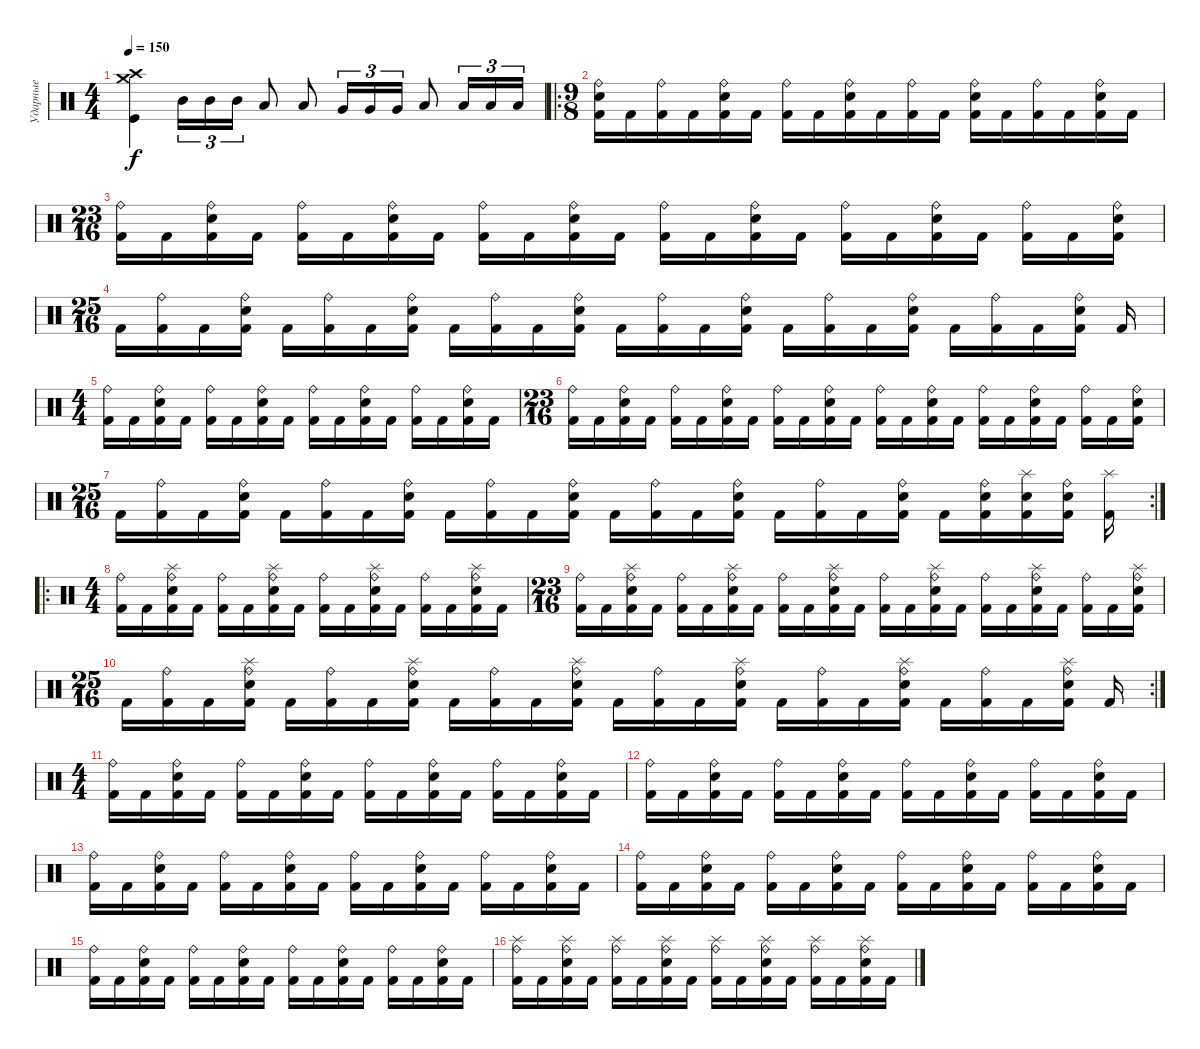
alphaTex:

\track ("Ударные" "Ударные") {instrument percussion}
\staff {score}
\articulation defaults
\ts (4 4)
\tempo 150
\clef neutral
\ks c
("Kick (hit)" "Crash medium (hit)" "Crash high (hit)").4{dy f} "Mid Tom (hit)".16{tu (3 2)} "Mid Tom (hit)".16{tu (3 2)} "Mid Tom (hit)".16{tu (3 2)} "Low Tom (hit)".8 "Low Tom (hit)".8 "Very Low Tom (hit)".16{tu (3 2)} "Very Low Tom (hit)".16{tu (3 2)} "Very Low Tom (hit)".16{tu (3 2)} "Low Floor Tom (hit)".8 "Low Floor Tom (hit)".16{tu (3 2)} "Low Floor Tom (hit)".16{tu (3 2)} "Low Floor Tom (hit)".16{tu (3 2)} |
\ro
\ts (9 8)
("Kick (hit) 2" "Snare (hit) 2" "Ride (bell)").16 "Kick (hit) 2".16 ("Kick (hit) 2" "Ride (bell)").16 "Kick (hit) 2".16 ("Kick (hit) 2" "Snare (hit) 2" "Ride (bell)").16 "Kick (hit) 2".16 ("Kick (hit) 2" "Ride (bell)").16 "Kick (hit) 2".16 ("Kick (hit) 2" "Snare (hit) 2" "Ride (bell)").16 "Kick (hit) 2".16 ("Kick (hit) 2" "Ride (bell)").16 "Kick (hit) 2".16 ("Kick (hit) 2" "Snare (hit) 2" "Ride (bell)").16 "Kick (hit) 2".16 ("Kick (hit) 2" "Ride (bell)").16 "Kick (hit) 2".16 ("Kick (hit) 2" "Snare (hit) 2" "Ride (bell)").16 "Kick (hit) 2".16 |
\ts (23 16)
("Kick (hit) 2" "Ride (bell)").16 "Kick (hit) 2".16 ("Kick (hit) 2" "Snare (hit) 2" "Ride (bell)").16 "Kick (hit) 2".16 ("Kick (hit) 2" "Ride (bell)").16 "Kick (hit) 2".16 ("Kick (hit) 2" "Snare (hit) 2" "Ride (bell)").16 "Kick (hit) 2".16 ("Kick (hit) 2" "Ride (bell)").16 "Kick (hit) 2".16 ("Kick (hit) 2" "Snare (hit) 2" "Ride (bell)").16 "Kick (hit) 2".16 ("Kick (hit) 2" "Ride (bell)").16 "Kick (hit) 2".16 ("Kick (hit) 2" "Snare (hit) 2" "Ride (bell)").16 "Kick (hit) 2".16 ("Kick (hit) 2" "Ride (bell)").16 "Kick (hit) 2".16 ("Kick (hit) 2" "Snare (hit) 2" "Ride (bell)").16 "Kick (hit) 2".16 ("Kick (hit) 2" "Ride (bell)").16 "Kick (hit) 2".16 ("Kick (hit) 2" "Snare (hit) 2" "Ride (bell)").16 |
\ts (25 16)
"Kick (hit) 2".16 ("Kick (hit) 2" "Ride (bell)").16 "Kick (hit) 2".16 ("Kick (hit) 2" "Snare (hit) 2" "Ride (bell)").16 "Kick (hit) 2".16 ("Kick (hit) 2" "Ride (bell)").16 "Kick (hit) 2".16 ("Kick (hit) 2" "Snare (hit) 2" "Ride (bell)").16 "Kick (hit) 2".16 ("Kick (hit) 2" "Ride (bell)").16 "Kick (hit) 2".16 ("Kick (hit) 2" "Snare (hit) 2" "Ride (bell)").16 "Kick (hit) 2".16 ("Kick (hit) 2" "Ride (bell)").16 "Kick (hit) 2".16 ("Kick (hit) 2" "Snare (hit) 2" "Ride (bell)").16 "Kick (hit) 2".16 ("Kick (hit) 2" "Ride (bell)").16 "Kick (hit) 2".16 ("Kick (hit) 2" "Snare (hit) 2" "Ride (bell)").16 "Kick (hit) 2".16 ("Kick (hit) 2" "Ride (bell)").16 "Kick (hit) 2".16 ("Kick (hit) 2" "Snare (hit) 2" "Ride (bell)").16 "Kick (hit) 2".16 |
\ts (4 4)
("Kick (hit) 2" "Ride (bell)").16 "Kick (hit) 2".16 ("Kick (hit) 2" "Snare (hit) 2" "Ride (bell)").16 "Kick (hit) 2".16 ("Kick (hit) 2" "Ride (bell)").16 "Kick (hit) 2".16 ("Kick (hit) 2" "Snare (hit) 2" "Ride (bell)").16 "Kick (hit) 2".16 ("Kick (hit) 2" "Ride (bell)").16 "Kick (hit) 2".16 ("Kick (hit) 2" "Snare (hit) 2" "Ride (bell)").16 "Kick (hit) 2".16 ("Kick (hit) 2" "Ride (bell)").16 "Kick (hit) 2".16 ("Kick (hit) 2" "Snare (hit) 2" "Ride (bell)").16 "Kick (hit) 2".16 |
\ts (23 16)
("Kick (hit) 2" "Ride (bell)").16 "Kick (hit) 2".16 ("Kick (hit) 2" "Snare (hit) 2" "Ride (bell)").16 "Kick (hit) 2".16 ("Kick (hit) 2" "Ride (bell)").16 "Kick (hit) 2".16 ("Kick (hit) 2" "Snare (hit) 2" "Ride (bell)").16 "Kick (hit) 2".16 ("Kick (hit) 2" "Ride (bell)").16 "Kick (hit) 2".16 ("Kick (hit) 2" "Snare (hit) 2" "Ride (bell)").16 "Kick (hit) 2".16 ("Kick (hit) 2" "Ride (bell)").16 "Kick (hit) 2".16 ("Kick (hit) 2" "Snare (hit) 2" "Ride (bell)").16 "Kick (hit) 2".16 ("Kick (hit) 2" "Ride (bell)").16 "Kick (hit) 2".16 ("Kick (hit) 2" "Snare (hit) 2" "Ride (bell)").16 "Kick (hit) 2".16 ("Kick (hit) 2" "Ride (bell)").16 "Kick (hit) 2".16 ("Kick (hit) 2" "Snare (hit) 2" "Ride (bell)").16 |
\rc 2
\ts (25 16)
"Kick (hit) 2".16 ("Kick (hit) 2" "Ride (bell)").16 "Kick (hit) 2".16 ("Kick (hit) 2" "Snare (hit) 2" "Ride (bell)").16 "Kick (hit) 2".16 ("Kick (hit) 2" "Ride (bell)").16 "Kick (hit) 2".16 ("Kick (hit) 2" "Snare (hit) 2" "Ride (bell)").16 "Kick (hit) 2".16 ("Kick (hit) 2" "Ride (bell)").16 "Kick (hit) 2".16 ("Kick (hit) 2" "Snare (hit) 2" "Ride (bell)").16 "Kick (hit) 2".16 ("Kick (hit) 2" "Ride (bell)").16 "Kick (hit) 2".16 ("Kick (hit) 2" "Snare (hit) 2" "Ride (bell)").16 "Kick (hit) 2".16 ("Kick (hit) 2" "Ride (bell)").16 "Kick (hit) 2".16 ("Kick (hit) 2" "Snare (hit) 2" "Ride (bell)").16 "Kick (hit) 2".16 ("Kick (hit) 2" "Snare (hit) 2" "Ride (bell)").16 ("Kick (hit) 2" "Snare (hit) 2" "Splash (hit)").16 ("Kick (hit) 2" "Snare (hit) 2" "Ride (bell)").16 ("Kick (hit) 2" "Splash (hit)").16 |
\ro
\ts (4 4)
("Kick (hit) 2" "Ride (bell)").16 "Kick (hit) 2".16 ("Kick (hit) 2" "Snare (hit) 2" "Ride (bell)" "Splash (hit)").16 "Kick (hit) 2".16 ("Kick (hit) 2" "Ride (bell)").16 "Kick (hit) 2".16 ("Kick (hit) 2" "Snare (hit) 2" "Ride (bell)" "Splash (hit)").16 "Kick (hit) 2".16 ("Kick (hit) 2" "Ride (bell)").16 "Kick (hit) 2".16 ("Kick (hit) 2" "Snare (hit) 2" "Ride (bell)" "Splash (hit)").16 "Kick (hit) 2".16 ("Kick (hit) 2" "Ride (bell)").16 "Kick (hit) 2".16 ("Kick (hit) 2" "Snare (hit) 2" "Ride (bell)" "Splash (hit)").16 "Kick (hit) 2".16 |
\ts (23 16)
("Kick (hit) 2" "Ride (bell)").16 "Kick (hit) 2".16 ("Kick (hit) 2" "Snare (hit) 2" "Ride (bell)" "Splash (hit)").16 "Kick (hit) 2".16 ("Kick (hit) 2" "Ride (bell)").16 "Kick (hit) 2".16 ("Kick (hit) 2" "Snare (hit) 2" "Ride (bell)" "Splash (hit)").16 "Kick (hit) 2".16 ("Kick (hit) 2" "Ride (bell)").16 "Kick (hit) 2".16 ("Kick (hit) 2" "Snare (hit) 2" "Ride (bell)" "Splash (hit)").16 "Kick (hit) 2".16 ("Kick (hit) 2" "Ride (bell)").16 "Kick (hit) 2".16 ("Kick (hit) 2" "Snare (hit) 2" "Ride (bell)" "Splash (hit)").16 "Kick (hit) 2".16 ("Kick (hit) 2" "Ride (bell)").16 "Kick (hit) 2".16 ("Kick (hit) 2" "Snare (hit) 2" "Ride (bell)" "Splash (hit)").16 "Kick (hit) 2".16 ("Kick (hit) 2" "Ride (bell)").16 "Kick (hit) 2".16 ("Kick (hit) 2" "Snare (hit) 2" "Ride (bell)" "Splash (hit)").16 |
\rc 2
\ts (25 16)
"Kick (hit) 2".16 ("Kick (hit) 2" "Ride (bell)").16 "Kick (hit) 2".16 ("Kick (hit) 2" "Snare (hit) 2" "Ride (bell)" "Splash (hit)").16 "Kick (hit) 2".16 ("Kick (hit) 2" "Ride (bell)").16 "Kick (hit) 2".16 ("Kick (hit) 2" "Snare (hit) 2" "Ride (bell)" "Splash (hit)").16 "Kick (hit) 2".16 ("Kick (hit) 2" "Ride (bell)").16 "Kick (hit) 2".16 ("Kick (hit) 2" "Snare (hit) 2" "Ride (bell)" "Splash (hit)").16 "Kick (hit) 2".16 ("Kick (hit) 2" "Ride (bell)").16 "Kick (hit) 2".16 ("Kick (hit) 2" "Snare (hit) 2" "Ride (bell)" "Splash (hit)").16 "Kick (hit) 2".16 ("Kick (hit) 2" "Ride (bell)").16 "Kick (hit) 2".16 ("Kick (hit) 2" "Snare (hit) 2" "Ride (bell)" "Splash (hit)").16 "Kick (hit) 2".16 ("Kick (hit) 2" "Ride (bell)").16 "Kick (hit) 2".16 ("Kick (hit) 2" "Snare (hit) 2" "Ride (bell)" "Splash (hit)").16 "Kick (hit) 2".16 |
\ts (4 4)
("Kick (hit) 2" "Ride (bell)").16 "Kick (hit) 2".16 ("Kick (hit) 2" "Snare (hit) 2" "Ride (bell)").16 "Kick (hit) 2".16 ("Kick (hit) 2" "Ride (bell)").16 "Kick (hit) 2".16 ("Kick (hit) 2" "Snare (hit) 2" "Ride (bell)").16 "Kick (hit) 2".16 ("Kick (hit) 2" "Ride (bell)").16 "Kick (hit) 2".16 ("Kick (hit) 2" "Snare (hit) 2" "Ride (bell)").16 "Kick (hit) 2".16 ("Kick (hit) 2" "Ride (bell)").16 "Kick (hit) 2".16 ("Kick (hit) 2" "Snare (hit) 2" "Ride (bell)").16 "Kick (hit) 2".16 |
("Kick (hit) 2" "Ride (bell)").16 "Kick (hit) 2".16 ("Kick (hit) 2" "Snare (hit) 2" "Ride (bell)").16 "Kick (hit) 2".16 ("Kick (hit) 2" "Ride (bell)").16 "Kick (hit) 2".16 ("Kick (hit) 2" "Snare (hit) 2" "Ride (bell)").16 "Kick (hit) 2".16 ("Kick (hit) 2" "Ride (bell)").16 "Kick (hit) 2".16 ("Kick (hit) 2" "Snare (hit) 2" "Ride (bell)").16 "Kick (hit) 2".16 ("Kick (hit) 2" "Ride (bell)").16 "Kick (hit) 2".16 ("Kick (hit) 2" "Snare (hit) 2" "Ride (bell)").16 "Kick (hit) 2".16 |
("Kick (hit) 2" "Ride (bell)").16 "Kick (hit) 2".16 ("Kick (hit) 2" "Snare (hit) 2" "Ride (bell)").16 "Kick (hit) 2".16 ("Kick (hit) 2" "Ride (bell)").16 "Kick (hit) 2".16 ("Kick (hit) 2" "Snare (hit) 2" "Ride (bell)").16 "Kick (hit) 2".16 ("Kick (hit) 2" "Ride (bell)").16 "Kick (hit) 2".16 ("Kick (hit) 2" "Snare (hit) 2" "Ride (bell)").16 "Kick (hit) 2".16 ("Kick (hit) 2" "Ride (bell)").16 "Kick (hit) 2".16 ("Kick (hit) 2" "Snare (hit) 2" "Ride (bell)").16 "Kick (hit) 2".16 |
("Kick (hit) 2" "Ride (bell)").16 "Kick (hit) 2".16 ("Kick (hit) 2" "Snare (hit) 2" "Ride (bell)").16 "Kick (hit) 2".16 ("Kick (hit) 2" "Ride (bell)").16 "Kick (hit) 2".16 ("Kick (hit) 2" "Snare (hit) 2" "Ride (bell)").16 "Kick (hit) 2".16 ("Kick (hit) 2" "Ride (bell)").16 "Kick (hit) 2".16 ("Kick (hit) 2" "Snare (hit) 2" "Ride (bell)").16 "Kick (hit) 2".16 ("Kick (hit) 2" "Ride (bell)").16 "Kick (hit) 2".16 ("Kick (hit) 2" "Snare (hit) 2" "Ride (bell)").16 "Kick (hit) 2".16 |
("Kick (hit) 2" "Ride (bell)").16 "Kick (hit) 2".16 ("Kick (hit) 2" "Snare (hit) 2" "Ride (bell)").16 "Kick (hit) 2".16 ("Kick (hit) 2" "Ride (bell)").16 "Kick (hit) 2".16 ("Kick (hit) 2" "Snare (hit) 2" "Ride (bell)").16 "Kick (hit) 2".16 ("Kick (hit) 2" "Ride (bell)").16 "Kick (hit) 2".16 ("Kick (hit) 2" "Snare (hit) 2" "Ride (bell)").16 "Kick (hit) 2".16 ("Kick (hit) 2" "Ride (bell)").16 "Kick (hit) 2".16 ("Kick (hit) 2" "Snare (hit) 2" "Ride (bell)").16 "Kick (hit) 2".16 |
("Kick (hit) 2" "Ride (bell)" "Splash (hit)").16 "Kick (hit) 2".16 ("Kick (hit) 2" "Snare (hit) 2" "Ride (bell)" "Splash (hit)").16 "Kick (hit) 2".16 ("Kick (hit) 2" "Ride (bell)" "Splash (hit)").16 "Kick (hit) 2".16 ("Kick (hit) 2" "Snare (hit) 2" "Ride (bell)" "Splash (hit)").16 "Kick (hit) 2".16 ("Kick (hit) 2" "Ride (bell)" "Splash (hit)").16 "Kick (hit) 2".16 ("Kick (hit) 2" "Snare (hit) 2" "Ride (bell)" "Splash (hit)").16 "Kick (hit) 2".16 ("Kick (hit) 2" "Ride (bell)" "Splash (hit)").16 "Kick (hit) 2".16 ("Kick (hit) 2" "Snare (hit) 2" "Ride (bell)" "Splash (hit)").16 "Kick (hit) 2".16
